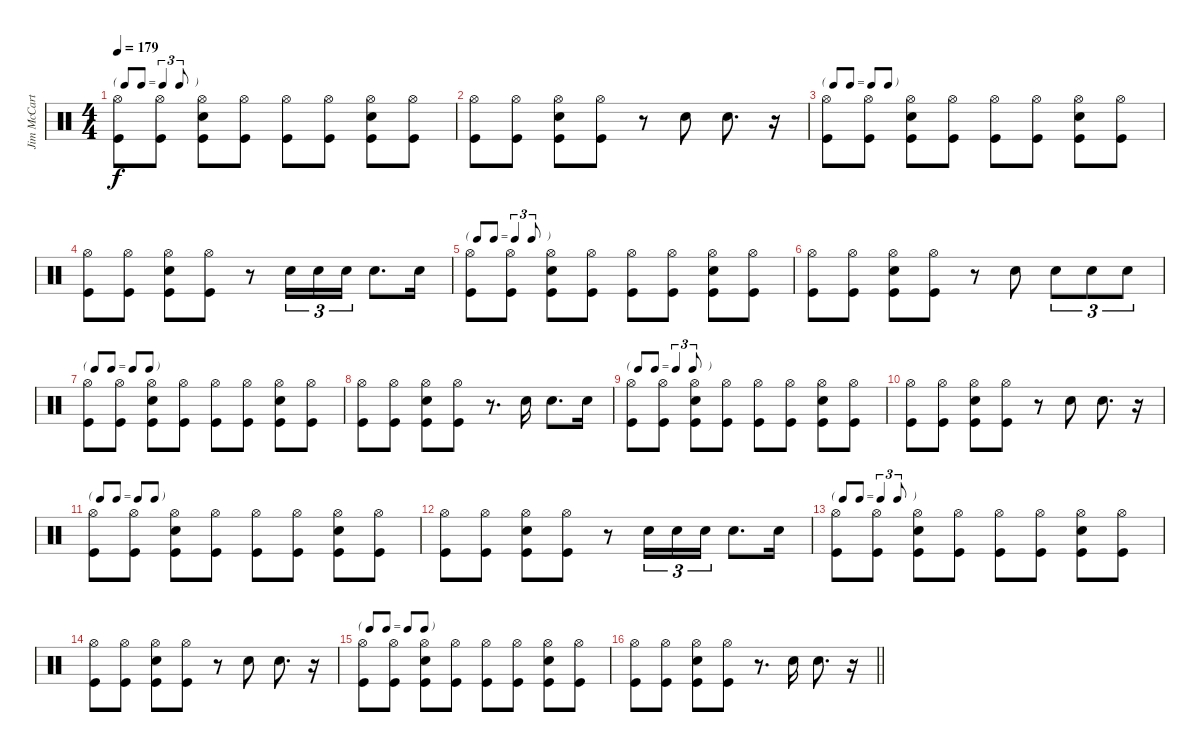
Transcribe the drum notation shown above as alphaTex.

\track ("Jim McCarty" "Jim McCart") {instrument percussion}
\staff {score}
\articulation defaults
\ts (4 4)
\tf triplet8th
\tempo 179
\clef neutral
\ks c
("Hi-Hat (open)" "Kick (hit)").8{dy f} ("Hi-Hat (open)" "Kick (hit)").8 ("Hi-Hat (open)" "Snare (hit) 2" "Kick (hit)").8 ("Hi-Hat (open)" "Kick (hit)").8 ("Hi-Hat (open)" "Kick (hit)").8 ("Hi-Hat (open)" "Kick (hit)").8 ("Hi-Hat (open)" "Snare (hit) 2" "Kick (hit)").8 ("Hi-Hat (open)" "Kick (hit)").8 |
("Hi-Hat (open)" "Kick (hit)").8 ("Hi-Hat (open)" "Kick (hit)").8 ("Hi-Hat (open)" "Snare (hit) 2" "Kick (hit)").8 ("Hi-Hat (open)" "Kick (hit)").8 r.8 "Snare (hit) 2".8 "Snare (hit) 2".8{d} r.16 |
\tf none
("Hi-Hat (open)" "Kick (hit)").8 ("Hi-Hat (open)" "Kick (hit)").8 ("Hi-Hat (open)" "Snare (hit) 2" "Kick (hit)").8 ("Hi-Hat (open)" "Kick (hit)").8 ("Hi-Hat (open)" "Kick (hit)").8 ("Hi-Hat (open)" "Kick (hit)").8 ("Hi-Hat (open)" "Snare (hit) 2" "Kick (hit)").8 ("Hi-Hat (open)" "Kick (hit)").8 |
("Hi-Hat (open)" "Kick (hit)").8 ("Hi-Hat (open)" "Kick (hit)").8 ("Hi-Hat (open)" "Snare (hit) 2" "Kick (hit)").8 ("Hi-Hat (open)" "Kick (hit)").8 r.8 "Snare (hit) 2".16{tu (3 2)} "Snare (hit) 2".16{tu (3 2)} "Snare (hit) 2".16{tu (3 2)} "Snare (hit) 2".8{d} "Snare (hit) 2".16 |
\tf triplet8th
("Hi-Hat (open)" "Kick (hit)").8 ("Hi-Hat (open)" "Kick (hit)").8 ("Hi-Hat (open)" "Snare (hit) 2" "Kick (hit)").8 ("Hi-Hat (open)" "Kick (hit)").8 ("Hi-Hat (open)" "Kick (hit)").8 ("Hi-Hat (open)" "Kick (hit)").8 ("Hi-Hat (open)" "Snare (hit) 2" "Kick (hit)").8 ("Hi-Hat (open)" "Kick (hit)").8 |
("Hi-Hat (open)" "Kick (hit)").8 ("Hi-Hat (open)" "Kick (hit)").8 ("Hi-Hat (open)" "Snare (hit) 2" "Kick (hit)").8 ("Hi-Hat (open)" "Kick (hit)").8 r.8 "Snare (hit) 2".8 "Snare (hit) 2".8{tu (3 2)} "Snare (hit) 2".8{tu (3 2)} "Snare (hit) 2".8{tu (3 2)} |
\tf none
("Hi-Hat (open)" "Kick (hit)").8 ("Hi-Hat (open)" "Kick (hit)").8 ("Hi-Hat (open)" "Snare (hit) 2" "Kick (hit)").8 ("Hi-Hat (open)" "Kick (hit)").8 ("Hi-Hat (open)" "Kick (hit)").8 ("Hi-Hat (open)" "Kick (hit)").8 ("Hi-Hat (open)" "Snare (hit) 2" "Kick (hit)").8 ("Hi-Hat (open)" "Kick (hit)").8 |
("Hi-Hat (open)" "Kick (hit)").8 ("Hi-Hat (open)" "Kick (hit)").8 ("Hi-Hat (open)" "Snare (hit) 2" "Kick (hit)").8 ("Hi-Hat (open)" "Kick (hit)").8 r.8{d} "Snare (hit) 2".16 "Snare (hit) 2".8{d} "Snare (hit) 2".16 |
\tf triplet8th
("Hi-Hat (open)" "Kick (hit)").8 ("Hi-Hat (open)" "Kick (hit)").8 ("Hi-Hat (open)" "Snare (hit) 2" "Kick (hit)").8 ("Hi-Hat (open)" "Kick (hit)").8 ("Hi-Hat (open)" "Kick (hit)").8 ("Hi-Hat (open)" "Kick (hit)").8 ("Hi-Hat (open)" "Snare (hit) 2" "Kick (hit)").8 ("Hi-Hat (open)" "Kick (hit)").8 |
("Hi-Hat (open)" "Kick (hit)").8 ("Hi-Hat (open)" "Kick (hit)").8 ("Hi-Hat (open)" "Snare (hit) 2" "Kick (hit)").8 ("Hi-Hat (open)" "Kick (hit)").8 r.8 "Snare (hit) 2".8 "Snare (hit) 2".8{d} r.16 |
\tf none
("Hi-Hat (open)" "Kick (hit)").8 ("Hi-Hat (open)" "Kick (hit)").8 ("Hi-Hat (open)" "Snare (hit) 2" "Kick (hit)").8 ("Hi-Hat (open)" "Kick (hit)").8 ("Hi-Hat (open)" "Kick (hit)").8 ("Hi-Hat (open)" "Kick (hit)").8 ("Hi-Hat (open)" "Snare (hit) 2" "Kick (hit)").8 ("Hi-Hat (open)" "Kick (hit)").8 |
("Hi-Hat (open)" "Kick (hit)").8 ("Hi-Hat (open)" "Kick (hit)").8 ("Hi-Hat (open)" "Snare (hit) 2" "Kick (hit)").8 ("Hi-Hat (open)" "Kick (hit)").8 r.8 "Snare (hit) 2".16{tu (3 2)} "Snare (hit) 2".16{tu (3 2)} "Snare (hit) 2".16{tu (3 2)} "Snare (hit) 2".8{d} "Snare (hit) 2".16 |
\tf triplet8th
("Hi-Hat (open)" "Kick (hit)").8 ("Hi-Hat (open)" "Kick (hit)").8 ("Hi-Hat (open)" "Snare (hit) 2" "Kick (hit)").8 ("Hi-Hat (open)" "Kick (hit)").8 ("Hi-Hat (open)" "Kick (hit)").8 ("Hi-Hat (open)" "Kick (hit)").8 ("Hi-Hat (open)" "Snare (hit) 2" "Kick (hit)").8 ("Hi-Hat (open)" "Kick (hit)").8 |
("Hi-Hat (open)" "Kick (hit)").8 ("Hi-Hat (open)" "Kick (hit)").8 ("Hi-Hat (open)" "Snare (hit) 2" "Kick (hit)").8 ("Hi-Hat (open)" "Kick (hit)").8 r.8 "Snare (hit) 2".8 "Snare (hit) 2".8{d} r.16 |
\tf none
("Hi-Hat (open)" "Kick (hit)").8 ("Hi-Hat (open)" "Kick (hit)").8 ("Hi-Hat (open)" "Snare (hit) 2" "Kick (hit)").8 ("Hi-Hat (open)" "Kick (hit)").8 ("Hi-Hat (open)" "Kick (hit)").8 ("Hi-Hat (open)" "Kick (hit)").8 ("Hi-Hat (open)" "Snare (hit) 2" "Kick (hit)").8 ("Hi-Hat (open)" "Kick (hit)").8 |
\barLineRight lightlight
("Hi-Hat (open)" "Kick (hit)").8 ("Hi-Hat (open)" "Kick (hit)").8 ("Hi-Hat (open)" "Snare (hit) 2" "Kick (hit)").8 ("Hi-Hat (open)" "Kick (hit)").8 r.8{d} "Snare (hit) 2".16 "Snare (hit) 2".8{d} r.16
